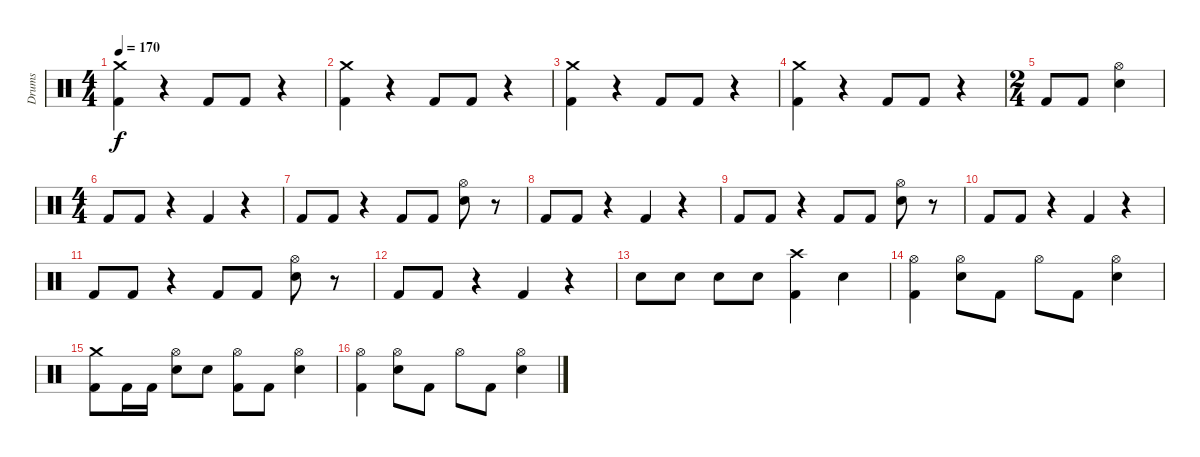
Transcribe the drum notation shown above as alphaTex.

\track ("Drums" "Drums") {instrument percussion}
\staff {score}
\articulation defaults
\ts (4 4)
\tempo 170
\clef neutral
\ks c
("Crash medium (hit)" "Kick (hit) 2").4{dy f} r.4 "Kick (hit) 2".8 "Kick (hit) 2".8 r.4 |
("Crash medium (hit)" "Kick (hit) 2").4 r.4 "Kick (hit) 2".8 "Kick (hit) 2".8 r.4 |
("Crash medium (hit)" "Kick (hit) 2").4 r.4 "Kick (hit) 2".8 "Kick (hit) 2".8 r.4 |
("Crash medium (hit)" "Kick (hit) 2").4 r.4 "Kick (hit) 2".8 "Kick (hit) 2".8 r.4 |
\ts (2 4)
"Kick (hit) 2".8 "Kick (hit) 2".8 ("Snare (hit) 2" "Hi-Hat (open)").4 |
\ts (4 4)
"Kick (hit) 2".8 "Kick (hit) 2".8 r.4 "Kick (hit) 2".4 r.4 |
"Kick (hit) 2".8 "Kick (hit) 2".8 r.4 "Kick (hit) 2".8 "Kick (hit) 2".8 ("Snare (hit) 2" "Hi-Hat (open)").8 r.8 |
"Kick (hit) 2".8 "Kick (hit) 2".8 r.4 "Kick (hit) 2".4 r.4 |
"Kick (hit) 2".8 "Kick (hit) 2".8 r.4 "Kick (hit) 2".8 "Kick (hit) 2".8 ("Snare (hit) 2" "Hi-Hat (open)").8 r.8 |
"Kick (hit) 2".8 "Kick (hit) 2".8 r.4 "Kick (hit) 2".4 r.4 |
"Kick (hit) 2".8 "Kick (hit) 2".8 r.4 "Kick (hit) 2".8 "Kick (hit) 2".8 ("Snare (hit) 2" "Hi-Hat (open)").8 r.8 |
"Kick (hit) 2".8 "Kick (hit) 2".8 r.4 "Kick (hit) 2".4 r.4 |
"Snare (hit) 2".8 "Snare (hit) 2".8 "Snare (hit) 2".8 "Snare (hit) 2".8 ("Crash high (hit)" "Kick (hit) 2").4 "Snare (hit) 2".4 |
("Hi-Hat (open)" "Kick (hit) 2").4 ("Snare (hit) 2" "Hi-Hat (open)").8 "Kick (hit) 2".8 "Hi-Hat (open)".8 "Kick (hit) 2".8 ("Snare (hit) 2" "Hi-Hat (open)").4 |
("Crash medium (hit)" "Kick (hit) 2").8 "Kick (hit) 2".16 "Kick (hit) 2".16 ("Snare (hit) 2" "Hi-Hat (open)").8 "Snare (hit) 2".8 ("Hi-Hat (open)" "Kick (hit) 2").8 "Kick (hit) 2".8 ("Snare (hit) 2" "Hi-Hat (open)").4 |
("Hi-Hat (open)" "Kick (hit) 2").4 ("Snare (hit) 2" "Hi-Hat (open)").8 "Kick (hit) 2".8 "Hi-Hat (open)".8 "Kick (hit) 2".8 ("Snare (hit) 2" "Hi-Hat (open)").4
